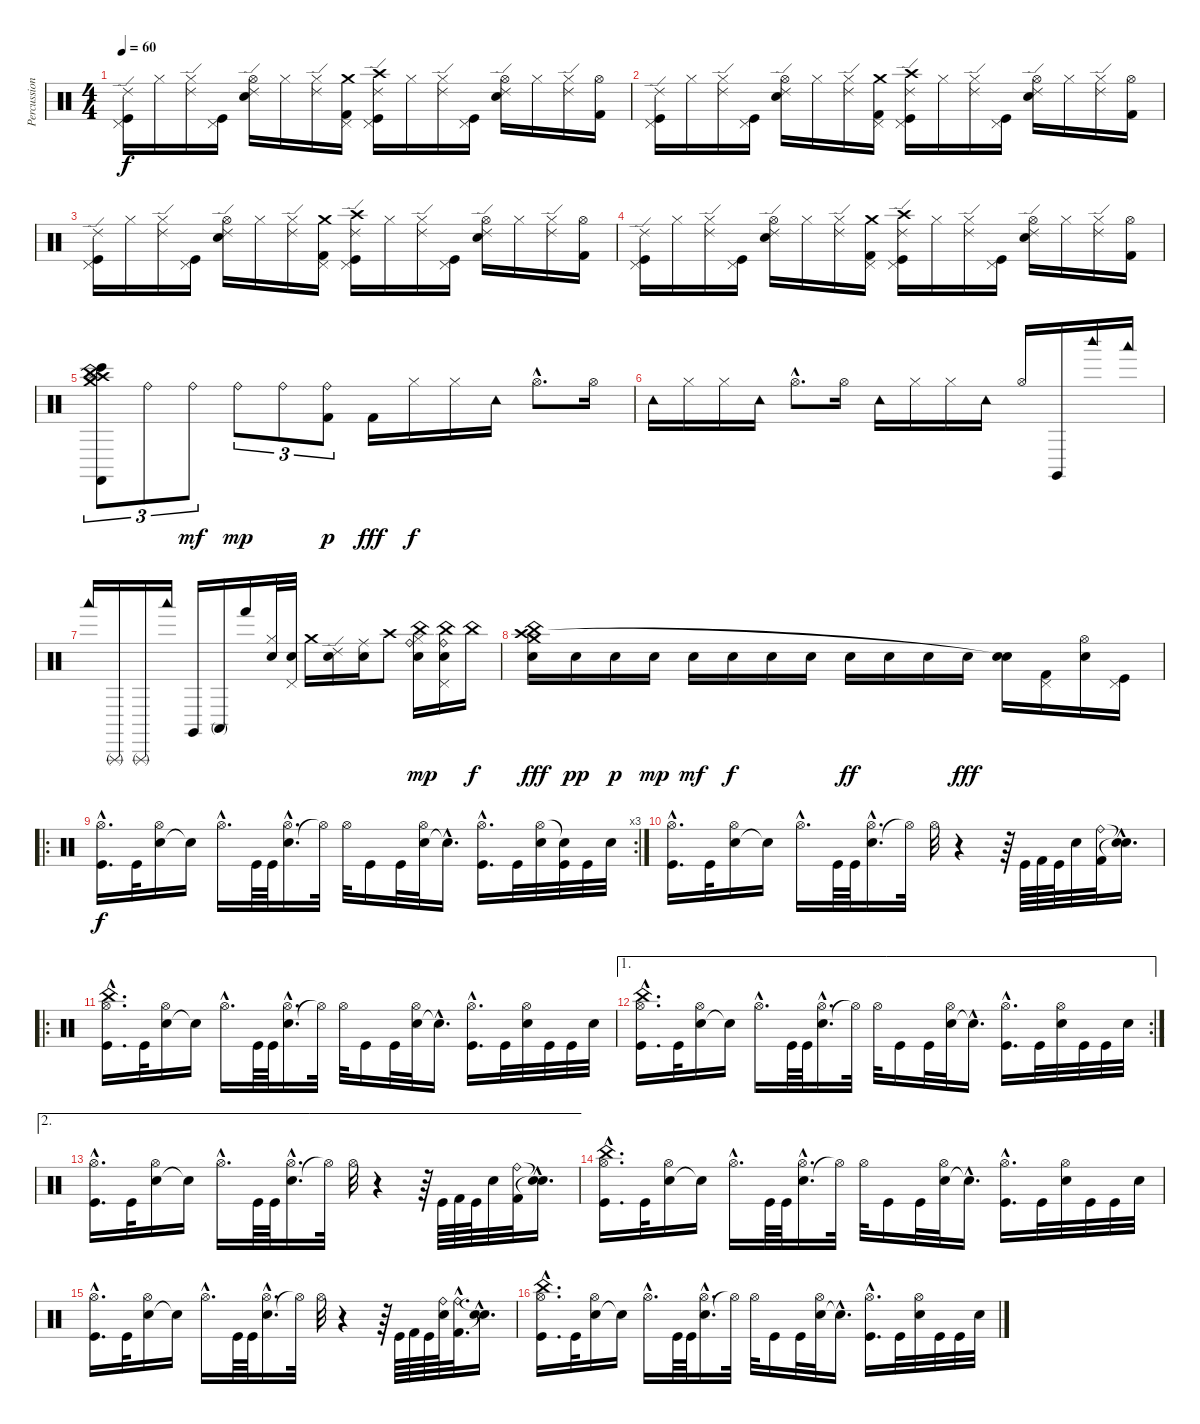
\track ("Percussions" "Percussion") {instrument percussion}
\staff {score}
\articulation defaults
\ts (4 4)
\tempo 60
\clef neutral
\ks c
("Kick (hit)" "Ride (edge) 2" "Pedal Hi-Hat (hit)").16{dy f} "Hi-Hat (closed)".16 ("Ride (edge) 2" "Hi-Hat (closed)").16 ("Kick (hit)" "Pedal Hi-Hat (hit)").16 ("Snare (hit) 2" "Ride (edge) 2" "Hi-Hat (open)").16 "Hi-Hat (closed)".16 ("Ride (edge) 2" "Hi-Hat (closed)").16 ("Kick (hit) 2" "Crash medium (hit)" "Pedal Hi-Hat (hit)").16 ("Kick (hit)" "Ride (edge) 2" "Crash high (hit)" "Pedal Hi-Hat (hit)").16 "Hi-Hat (closed)".16 ("Ride (edge) 2" "Hi-Hat (closed)").16 ("Kick (hit)" "Pedal Hi-Hat (hit)").16 ("Snare (hit) 2" "Ride (edge) 2" "Hi-Hat (open)").16 "Hi-Hat (closed)".16 ("Ride (edge) 2" "Hi-Hat (closed)").16 ("Kick (hit) 2" "Hi-Hat (open)").16 |
("Kick (hit)" "Ride (edge) 2" "Pedal Hi-Hat (hit)").16 "Hi-Hat (closed)".16 ("Ride (edge) 2" "Hi-Hat (closed)").16 ("Kick (hit)" "Pedal Hi-Hat (hit)").16 ("Snare (hit) 2" "Ride (edge) 2" "Hi-Hat (open)").16 "Hi-Hat (closed)".16 ("Ride (edge) 2" "Hi-Hat (closed)").16 ("Kick (hit) 2" "Crash medium (hit)" "Pedal Hi-Hat (hit)").16 ("Kick (hit)" "Ride (edge) 2" "Crash high (hit)" "Pedal Hi-Hat (hit)").16 "Hi-Hat (closed)".16 ("Ride (edge) 2" "Hi-Hat (closed)").16 ("Kick (hit)" "Pedal Hi-Hat (hit)").16 ("Snare (hit) 2" "Ride (edge) 2" "Hi-Hat (open)").16 "Hi-Hat (closed)".16 ("Ride (edge) 2" "Hi-Hat (closed)").16 ("Kick (hit) 2" "Hi-Hat (open)").16 |
("Kick (hit)" "Ride (edge) 2" "Pedal Hi-Hat (hit)").16 "Hi-Hat (closed)".16 ("Ride (edge) 2" "Hi-Hat (closed)").16 ("Kick (hit)" "Pedal Hi-Hat (hit)").16 ("Snare (hit) 2" "Ride (edge) 2" "Hi-Hat (open)").16 "Hi-Hat (closed)".16 ("Ride (edge) 2" "Hi-Hat (closed)").16 ("Kick (hit) 2" "Crash medium (hit)" "Pedal Hi-Hat (hit)").16 ("Kick (hit)" "Ride (edge) 2" "Crash high (hit)" "Pedal Hi-Hat (hit)").16 "Hi-Hat (closed)".16 ("Ride (edge) 2" "Hi-Hat (closed)").16 ("Kick (hit)" "Pedal Hi-Hat (hit)").16 ("Snare (hit) 2" "Ride (edge) 2" "Hi-Hat (open)").16 "Hi-Hat (closed)".16 ("Ride (edge) 2" "Hi-Hat (closed)").16 ("Kick (hit) 2" "Hi-Hat (open)").16 |
("Kick (hit)" "Ride (edge) 2" "Pedal Hi-Hat (hit)").16 "Hi-Hat (closed)".16 ("Ride (edge) 2" "Hi-Hat (closed)").16 ("Kick (hit)" "Pedal Hi-Hat (hit)").16 ("Snare (hit) 2" "Ride (edge) 2" "Hi-Hat (open)").16 "Hi-Hat (closed)".16 ("Ride (edge) 2" "Hi-Hat (closed)").16 ("Kick (hit) 2" "Crash medium (hit)" "Pedal Hi-Hat (hit)").16 ("Kick (hit)" "Ride (edge) 2" "Crash high (hit)" "Pedal Hi-Hat (hit)").16 "Hi-Hat (closed)".16 ("Ride (edge) 2" "Hi-Hat (closed)").16 ("Kick (hit)" "Pedal Hi-Hat (hit)").16 ("Snare (hit) 2" "Ride (edge) 2" "Hi-Hat (open)").16 "Hi-Hat (closed)".16 ("Ride (edge) 2" "Hi-Hat (closed)").16 ("Kick (hit) 2" "Hi-Hat (open)").16 |
("Crash high (hit)" "Bongo High (hit)" "China (hit)" "Castanets (hit)" "Splash (hit)" "Crash medium (hit)").8{tu (3 2)} "Ride (bell)".8{tu (3 2)} "Ride (bell)".8{tu (3 2) dy mf} "Ride (bell)".8{tu (3 2) dy mp} "Ride (bell)".8{tu (3 2)} ("Kick (hit) 2" "Ride (bell)").8{tu (3 2) dy p} "Kick (hit) 2".16{dy fff} "Hi-Hat (closed)".16{dy f} "Hi-Hat (closed)".16 "Tambourine (hit)".16 "Hi-Hat (open)"{hac}.8{d} "Hi-Hat (open)".16 |
"Tambourine (hit)".16 "Hi-Hat (closed)".16 "Hi-Hat (closed)".16 "Tambourine (hit)".16 "Hi-Hat (open)"{hac}.8{d} "Hi-Hat (open)".16 "Tambourine (hit)".16 "Hi-Hat (closed)".16 "Hi-Hat (closed)".16 "Tambourine (hit)".16 "Hi-Hat (open)".16 "Claves (hit)".16 "Woodblock high (hit)".16 "Woodblock low (hit)".16 |
"Woodblock low (hit)".16 "Triangle (rnute)".16 "Triangle (rnute)".16 "Woodblock low (hit)".16 "Claves (hit)".16 "Conga high (mute)".16 "Hand (hit)".16 ("Electric Snare (hit)" "Hi-Hat (closed)").32 ("Electric Snare (hit)" "Pedal Hi-Hat (hit)").32 "Crash medium (hit)".16 ("Electric Snare (hit)" "Ride (edge) 2").16 ("Electric Snare (hit)" "Ride (middle)").16 "Crash high (hit)".8 ("Electric Snare (hit)" "Hi-Hat (closed)" "Ride (bell)" "China (hit)").16{dy mp} ("Electric Snare (hit)" "Pedal Hi-Hat (hit)" "Ride (bell)" "China (hit)").16 "China (hit)".16{dy f} |
("Snare (hit) 2" "Crash high (hit)" "Crash medium (hit)" "China (hit)").16{dy fff} "Snare (hit) 2".16{dy pp} "Snare (hit) 2".16{dy p} "Snare (hit) 2".16{dy mp} "Snare (hit) 2".16{dy mf} "Snare (hit) 2".16{dy f} "Snare (hit) 2".16 "Snare (hit) 2".16 "Snare (hit) 2".16{dy ff} "Snare (hit) 2".16 "Snare (hit) 2".16 "Electric Snare (hit)".16{dy fff} ("Electric Snare (hit)" "Snare (hit)"{t}).16 ("Kick (hit) 2" "Pedal Hi-Hat (hit)").16 ("Electric Snare (hit)" "Hi-Hat (open)").16 ("Kick (hit)" "Pedal Hi-Hat (hit)").16 |
\ro
\rc 3
("Kick (hit)"{hac} "Hi-Hat (open)"{hac}).16{d dy f} "Kick (hit)".32 ("Snare (hit) 2" "Hi-Hat (open)").16 "Snare (hit)"{t}.16 "Hi-Hat (open)"{hac}.16{d} "Kick (hit)".64 "Kick (hit)".64 ("Snare (hit) 2"{hac} "Hi-Hat (open)"{hac}).16{d} "Hi-Hat (open)"{t}.32 "Hi-Hat (open)".32 "Kick (hit)".16 "Kick (hit)".32 ("Snare (hit) 2" "Hi-Hat (open)").32 "Snare (hit)"{hac t}.16{d} ("Kick (hit)"{hac} "Hi-Hat (open)"{hac}).16{d} "Kick (hit)".32 ("Snare (hit) 2" "Hi-Hat (open)").32 ("Kick (hit)" "Snare (hit)"{t}).32 "Kick (hit)".32 "Snare (hit) 2".32 |
("Kick (hit)"{hac} "Hi-Hat (open)"{hac}).16{d} "Kick (hit)".32 ("Snare (hit) 2" "Hi-Hat (open)").16 "Snare (hit)"{t}.16 "Hi-Hat (open)"{hac}.16{d} "Kick (hit)".64 "Kick (hit)".64 ("Snare (hit) 2"{hac} "Hi-Hat (open)"{hac}).16{d} "Hi-Hat (open)"{t}.32 "Hi-Hat (open)".32 r.4 r.64 "Kick (hit)".64 "Kick (hit) 2".64 "Kick (hit)".64 "Snare (hit) 2".32 ("Kick (hit) 2" "Ride (bell)").32 ("Snare (hit)"{hac t} "Snare (hit)"{hac t}).16{d} |
\ro
("Kick (hit)"{hac} "China (hit)"{hac} "Hi-Hat (open)"{hac}).16{d} "Kick (hit)".32 ("Snare (hit) 2" "Hi-Hat (open)").16 "Snare (hit)"{t}.16 "Hi-Hat (open)"{hac}.16{d} "Kick (hit)".64 "Kick (hit)".64 ("Snare (hit) 2"{hac} "Hi-Hat (open)"{hac}).16{d} "Hi-Hat (open)"{t}.32 "Hi-Hat (open)".32 "Kick (hit)".16 "Kick (hit)".32 ("Snare (hit) 2" "Hi-Hat (open)").32 "Snare (hit)"{hac t}.16{d} ("Kick (hit)"{hac} "Hi-Hat (open)"{hac}).16{d} "Kick (hit)".32 ("Snare (hit) 2" "Hi-Hat (open)").32 "Kick (hit)".32 "Kick (hit)".32 "Snare (hit) 2".32 |
\ae 1
\rc 2
("Kick (hit)"{hac} "China (hit)"{hac} "Hi-Hat (open)"{hac}).16{d} "Kick (hit)".32 ("Snare (hit) 2" "Hi-Hat (open)").16 "Snare (hit)"{t}.16 "Hi-Hat (open)"{hac}.16{d} "Kick (hit)".64 "Kick (hit)".64 ("Snare (hit) 2"{hac} "Hi-Hat (open)"{hac}).16{d} "Hi-Hat (open)"{t}.32 "Hi-Hat (open)".32 "Kick (hit)".16 "Kick (hit)".32 ("Snare (hit) 2" "Hi-Hat (open)").32 "Snare (hit)"{hac t}.16{d} ("Kick (hit)"{hac} "Hi-Hat (open)"{hac}).16{d} "Kick (hit)".32 ("Snare (hit) 2" "Hi-Hat (open)").32 "Kick (hit)".32 "Kick (hit)".32 "Snare (hit) 2".32 |
\ae 2
("Kick (hit)"{hac} "Hi-Hat (open)"{hac}).16{d} "Kick (hit)".32 ("Snare (hit) 2" "Hi-Hat (open)").16 "Snare (hit)"{t}.16 "Hi-Hat (open)"{hac}.16{d} "Kick (hit)".64 "Kick (hit)".64 ("Snare (hit) 2"{hac} "Hi-Hat (open)"{hac}).16{d} "Hi-Hat (open)"{t}.32 "Hi-Hat (open)".32 r.4 r.64 "Kick (hit)".64 "Kick (hit) 2".64 "Kick (hit)".64 "Snare (hit) 2".32 ("Kick (hit) 2" "Ride (bell)").32 ("Snare (hit)"{hac t} "Snare (hit)"{hac t}).16{d} |
("Kick (hit)"{hac} "China (hit)"{hac} "Hi-Hat (open)"{hac}).16{d} "Kick (hit)".32 ("Snare (hit) 2" "Hi-Hat (open)").16 "Snare (hit)"{t}.16 "Hi-Hat (open)"{hac}.16{d} "Kick (hit)".64 "Kick (hit)".64 ("Snare (hit) 2"{hac} "Hi-Hat (open)"{hac}).16{d} "Hi-Hat (open)"{t}.32 "Hi-Hat (open)".32 "Kick (hit)".16 "Kick (hit)".32 ("Snare (hit) 2" "Hi-Hat (open)").32 "Snare (hit)"{hac t}.16{d} ("Kick (hit)"{hac} "Hi-Hat (open)"{hac}).16{d} "Kick (hit)".32 ("Snare (hit) 2" "Hi-Hat (open)").32 "Kick (hit)".32 "Kick (hit)".32 "Snare (hit) 2".32 |
("Kick (hit)"{hac} "Hi-Hat (open)"{hac}).16{d} "Kick (hit)".32 ("Snare (hit) 2" "Hi-Hat (open)").16 "Snare (hit)"{t}.16 "Hi-Hat (open)"{hac}.16{d} "Kick (hit)".64 "Kick (hit)".64 ("Snare (hit) 2"{hac} "Hi-Hat (open)"{hac}).16{d} "Hi-Hat (open)"{t}.32 "Hi-Hat (open)".32 r.4 r.64 "Kick (hit)".64 "Kick (hit) 2".64 "Kick (hit)".64 ("Snare (hit) 2" "Ride (bell)").64 ("Kick (hit) 2"{hac} "Ride (bell)"{hac}).32{d} ("Snare (hit)"{hac t} "Snare (hit)"{hac t}).16{d} |
("Kick (hit)"{hac} "China (hit)"{hac} "Hi-Hat (open)"{hac}).16{d} "Kick (hit)".32 ("Snare (hit) 2" "Hi-Hat (open)").16 "Snare (hit)"{t}.16 "Hi-Hat (open)"{hac}.16{d} "Kick (hit)".64 "Kick (hit)".64 ("Snare (hit) 2"{hac} "Hi-Hat (open)"{hac}).16{d} "Hi-Hat (open)"{t}.32 "Hi-Hat (open)".32 "Kick (hit)".16 "Kick (hit)".32 ("Snare (hit) 2" "Hi-Hat (open)").32 "Snare (hit)"{hac t}.16{d} ("Kick (hit)"{hac} "Hi-Hat (open)"{hac}).16{d} "Kick (hit)".32 ("Snare (hit) 2" "Hi-Hat (open)").32 "Kick (hit)".32 "Kick (hit)".32 "Snare (hit) 2".32
